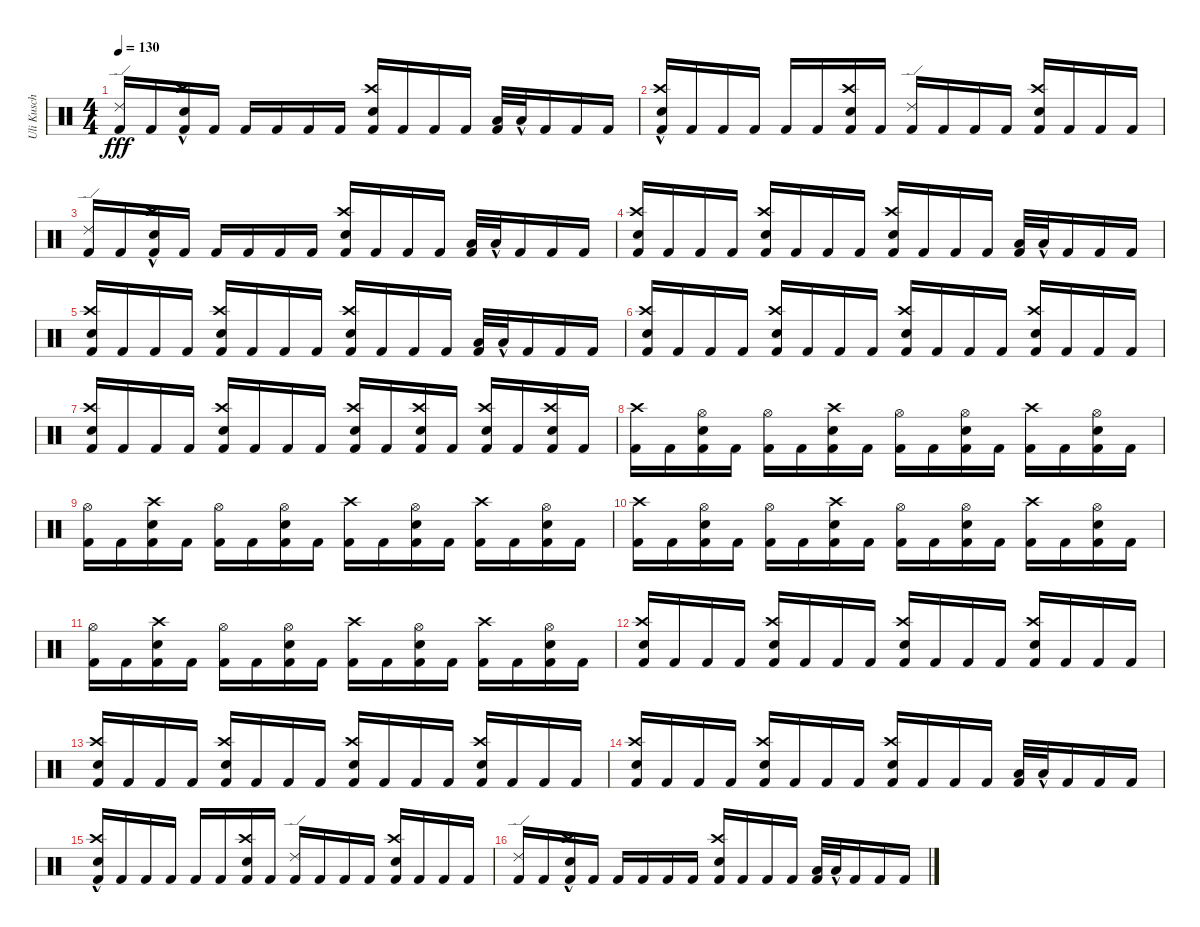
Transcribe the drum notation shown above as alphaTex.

\track ("Uli Kusch" "Uli Kusch") {instrument percussion}
\staff {score}
\articulation defaults
\ts (4 4)
\tempo 130
\clef neutral
\ks c
("Kick (hit) 2" "Ride (edge) 2").16{dy fff} "Kick (hit) 2".16 ("Kick (hit) 2" "Crash high (hit)"{hac} "Electric Snare (hit)"{hac}).16 "Kick (hit) 2".16 "Kick (hit) 2".16 "Kick (hit) 2".16 "Kick (hit) 2".16 "Kick (hit) 2".16 ("Kick (hit) 2" "Crash high (hit)" "Electric Snare (hit)").16 "Kick (hit) 2".16 "Kick (hit) 2".16 "Kick (hit) 2".16 ("Kick (hit) 2" "Low Floor Tom (hit)").32 "Low Floor Tom (hit)"{hac}.32 "Kick (hit) 2".16 "Kick (hit) 2".16 "Kick (hit) 2".16 |
("Kick (hit) 2" "Crash high (hit)" "Electric Snare (hit)"{hac}).16 "Kick (hit) 2".16 "Kick (hit) 2".16 "Kick (hit) 2".16 "Kick (hit) 2".16 "Kick (hit) 2".16 ("Kick (hit) 2" "Crash high (hit)" "Electric Snare (hit)").16 "Kick (hit) 2".16 ("Kick (hit) 2" "Ride (edge) 2").16 "Kick (hit) 2".16 "Kick (hit) 2".16 "Kick (hit) 2".16 ("Kick (hit) 2" "Electric Snare (hit)" "Crash high (hit)").16 "Kick (hit) 2".16 "Kick (hit) 2".16 "Kick (hit) 2".16 |
("Kick (hit) 2" "Ride (edge) 2").16 "Kick (hit) 2".16 ("Kick (hit) 2" "Crash high (hit)"{hac} "Electric Snare (hit)"{hac}).16 "Kick (hit) 2".16 "Kick (hit) 2".16 "Kick (hit) 2".16 "Kick (hit) 2".16 "Kick (hit) 2".16 ("Kick (hit) 2" "Crash high (hit)" "Electric Snare (hit)").16 "Kick (hit) 2".16 "Kick (hit) 2".16 "Kick (hit) 2".16 ("Kick (hit) 2" "Low Floor Tom (hit)").32 "Low Floor Tom (hit)"{hac}.32 "Kick (hit) 2".16 "Kick (hit) 2".16 "Kick (hit) 2".16 |
("Kick (hit) 2" "Electric Snare (hit)" "Crash high (hit)").16 "Kick (hit) 2".16 "Kick (hit) 2".16 "Kick (hit) 2".16 ("Kick (hit) 2" "Electric Snare (hit)" "Crash high (hit)").16 "Kick (hit) 2".16 "Kick (hit) 2".16 "Kick (hit) 2".16 ("Kick (hit) 2" "Electric Snare (hit)" "Crash high (hit)").16 "Kick (hit) 2".16 "Kick (hit) 2".16 "Kick (hit) 2".16 ("Kick (hit) 2" "Low Floor Tom (hit)").32 "Low Floor Tom (hit)"{hac}.32 "Kick (hit) 2".16 "Kick (hit) 2".16 "Kick (hit) 2".16 |
("Kick (hit) 2" "Electric Snare (hit)" "Crash high (hit)").16 "Kick (hit) 2".16 "Kick (hit) 2".16 "Kick (hit) 2".16 ("Kick (hit) 2" "Electric Snare (hit)" "Crash high (hit)").16 "Kick (hit) 2".16 "Kick (hit) 2".16 "Kick (hit) 2".16 ("Kick (hit) 2" "Electric Snare (hit)" "Crash high (hit)").16 "Kick (hit) 2".16 "Kick (hit) 2".16 "Kick (hit) 2".16 ("Kick (hit) 2" "Low Floor Tom (hit)").32 "Low Floor Tom (hit)"{hac}.32 "Kick (hit) 2".16 "Kick (hit) 2".16 "Kick (hit) 2".16 |
("Kick (hit) 2" "Electric Snare (hit)" "Crash high (hit)").16 "Kick (hit) 2".16 "Kick (hit) 2".16 "Kick (hit) 2".16 ("Kick (hit) 2" "Electric Snare (hit)" "Crash high (hit)").16 "Kick (hit) 2".16 "Kick (hit) 2".16 "Kick (hit) 2".16 ("Kick (hit) 2" "Electric Snare (hit)" "Crash high (hit)").16 "Kick (hit) 2".16 "Kick (hit) 2".16 "Kick (hit) 2".16 ("Kick (hit) 2" "Electric Snare (hit)" "Crash high (hit)").16 "Kick (hit) 2".16 "Kick (hit) 2".16 "Kick (hit) 2".16 |
("Kick (hit) 2" "Electric Snare (hit)" "Crash high (hit)").16 "Kick (hit) 2".16 "Kick (hit) 2".16 "Kick (hit) 2".16 ("Kick (hit) 2" "Electric Snare (hit)" "Crash high (hit)").16 "Kick (hit) 2".16 "Kick (hit) 2".16 "Kick (hit) 2".16 ("Kick (hit) 2" "Crash high (hit)" "Electric Snare (hit)").16 "Kick (hit) 2".16 ("Kick (hit) 2" "Crash high (hit)" "Electric Snare (hit)").16 "Kick (hit) 2".16 ("Kick (hit) 2" "Crash high (hit)" "Electric Snare (hit)").16 "Kick (hit) 2".16 ("Kick (hit) 2" "Crash high (hit)" "Electric Snare (hit)").16 "Kick (hit) 2".16 |
("Kick (hit) 2" "Crash high (hit)").16 "Kick (hit) 2".16 ("Kick (hit) 2" "Electric Snare (hit)" "Hi-Hat (open)").16 "Kick (hit) 2".16 ("Kick (hit) 2" "Hi-Hat (open)").16 "Kick (hit) 2".16 ("Kick (hit) 2" "Electric Snare (hit)" "Crash high (hit)").16 "Kick (hit) 2".16 ("Kick (hit) 2" "Hi-Hat (open)").16 "Kick (hit) 2".16 ("Kick (hit) 2" "Electric Snare (hit)" "Hi-Hat (open)").16 "Kick (hit) 2".16 ("Kick (hit) 2" "Crash high (hit)").16 "Kick (hit) 2".16 ("Kick (hit) 2" "Electric Snare (hit)" "Hi-Hat (open)").16 "Kick (hit) 2".16 |
("Kick (hit) 2" "Hi-Hat (open)").16 "Kick (hit) 2".16 ("Kick (hit) 2" "Electric Snare (hit)" "Crash high (hit)").16 "Kick (hit) 2".16 ("Kick (hit) 2" "Hi-Hat (open)").16 "Kick (hit) 2".16 ("Kick (hit) 2" "Electric Snare (hit)" "Hi-Hat (open)").16 "Kick (hit) 2".16 ("Kick (hit) 2" "Crash high (hit)").16 "Kick (hit) 2".16 ("Kick (hit) 2" "Electric Snare (hit)" "Hi-Hat (open)").16 "Kick (hit) 2".16 ("Kick (hit) 2" "Crash high (hit)").16 "Kick (hit) 2".16 ("Kick (hit) 2" "Electric Snare (hit)" "Hi-Hat (open)").16 "Kick (hit) 2".16 |
("Kick (hit) 2" "Crash high (hit)").16 "Kick (hit) 2".16 ("Kick (hit) 2" "Electric Snare (hit)" "Hi-Hat (open)").16 "Kick (hit) 2".16 ("Kick (hit) 2" "Hi-Hat (open)").16 "Kick (hit) 2".16 ("Kick (hit) 2" "Electric Snare (hit)" "Crash high (hit)").16 "Kick (hit) 2".16 ("Kick (hit) 2" "Hi-Hat (open)").16 "Kick (hit) 2".16 ("Kick (hit) 2" "Electric Snare (hit)" "Hi-Hat (open)").16 "Kick (hit) 2".16 ("Kick (hit) 2" "Crash high (hit)").16 "Kick (hit) 2".16 ("Kick (hit) 2" "Electric Snare (hit)" "Hi-Hat (open)").16 "Kick (hit) 2".16 |
("Kick (hit) 2" "Hi-Hat (open)").16 "Kick (hit) 2".16 ("Kick (hit) 2" "Electric Snare (hit)" "Crash high (hit)").16 "Kick (hit) 2".16 ("Kick (hit) 2" "Hi-Hat (open)").16 "Kick (hit) 2".16 ("Kick (hit) 2" "Electric Snare (hit)" "Hi-Hat (open)").16 "Kick (hit) 2".16 ("Kick (hit) 2" "Crash high (hit)").16 "Kick (hit) 2".16 ("Kick (hit) 2" "Electric Snare (hit)" "Hi-Hat (open)").16 "Kick (hit) 2".16 ("Kick (hit) 2" "Crash high (hit)").16 "Kick (hit) 2".16 ("Kick (hit) 2" "Electric Snare (hit)" "Hi-Hat (open)").16 "Kick (hit) 2".16 |
("Kick (hit) 2" "Electric Snare (hit)" "Crash high (hit)").16 "Kick (hit) 2".16 "Kick (hit) 2".16 "Kick (hit) 2".16 ("Kick (hit) 2" "Electric Snare (hit)" "Crash high (hit)").16 "Kick (hit) 2".16 "Kick (hit) 2".16 "Kick (hit) 2".16 ("Kick (hit) 2" "Electric Snare (hit)" "Crash high (hit)").16 "Kick (hit) 2".16 "Kick (hit) 2".16 "Kick (hit) 2".16 ("Kick (hit) 2" "Electric Snare (hit)" "Crash high (hit)").16 "Kick (hit) 2".16 "Kick (hit) 2".16 "Kick (hit) 2".16 |
("Kick (hit) 2" "Electric Snare (hit)" "Crash high (hit)").16 "Kick (hit) 2".16 "Kick (hit) 2".16 "Kick (hit) 2".16 ("Kick (hit) 2" "Electric Snare (hit)" "Crash high (hit)").16 "Kick (hit) 2".16 "Kick (hit) 2".16 "Kick (hit) 2".16 ("Kick (hit) 2" "Electric Snare (hit)" "Crash high (hit)").16 "Kick (hit) 2".16 "Kick (hit) 2".16 "Kick (hit) 2".16 ("Kick (hit) 2" "Electric Snare (hit)" "Crash high (hit)").16 "Kick (hit) 2".16 "Kick (hit) 2".16 "Kick (hit) 2".16 |
("Kick (hit) 2" "Electric Snare (hit)" "Crash high (hit)").16 "Kick (hit) 2".16 "Kick (hit) 2".16 "Kick (hit) 2".16 ("Kick (hit) 2" "Electric Snare (hit)" "Crash high (hit)").16 "Kick (hit) 2".16 "Kick (hit) 2".16 "Kick (hit) 2".16 ("Kick (hit) 2" "Electric Snare (hit)" "Crash high (hit)").16 "Kick (hit) 2".16 "Kick (hit) 2".16 "Kick (hit) 2".16 ("Kick (hit) 2" "Low Floor Tom (hit)").32 "Low Floor Tom (hit)"{hac}.32 "Kick (hit) 2".16 "Kick (hit) 2".16 "Kick (hit) 2".16 |
("Kick (hit) 2" "Crash high (hit)" "Electric Snare (hit)"{hac}).16 "Kick (hit) 2".16 "Kick (hit) 2".16 "Kick (hit) 2".16 "Kick (hit) 2".16 "Kick (hit) 2".16 ("Kick (hit) 2" "Crash high (hit)" "Electric Snare (hit)").16 "Kick (hit) 2".16 ("Kick (hit) 2" "Ride (edge) 2").16 "Kick (hit) 2".16 "Kick (hit) 2".16 "Kick (hit) 2".16 ("Kick (hit) 2" "Electric Snare (hit)" "Crash high (hit)").16 "Kick (hit) 2".16 "Kick (hit) 2".16 "Kick (hit) 2".16 |
("Kick (hit) 2" "Ride (edge) 2").16 "Kick (hit) 2".16 ("Kick (hit) 2" "Crash high (hit)"{hac} "Electric Snare (hit)"{hac}).16 "Kick (hit) 2".16 "Kick (hit) 2".16 "Kick (hit) 2".16 "Kick (hit) 2".16 "Kick (hit) 2".16 ("Kick (hit) 2" "Crash high (hit)" "Electric Snare (hit)").16 "Kick (hit) 2".16 "Kick (hit) 2".16 "Kick (hit) 2".16 ("Kick (hit) 2" "Low Floor Tom (hit)").32 "Low Floor Tom (hit)"{hac}.32 "Kick (hit) 2".16 "Kick (hit) 2".16 "Kick (hit) 2".16
